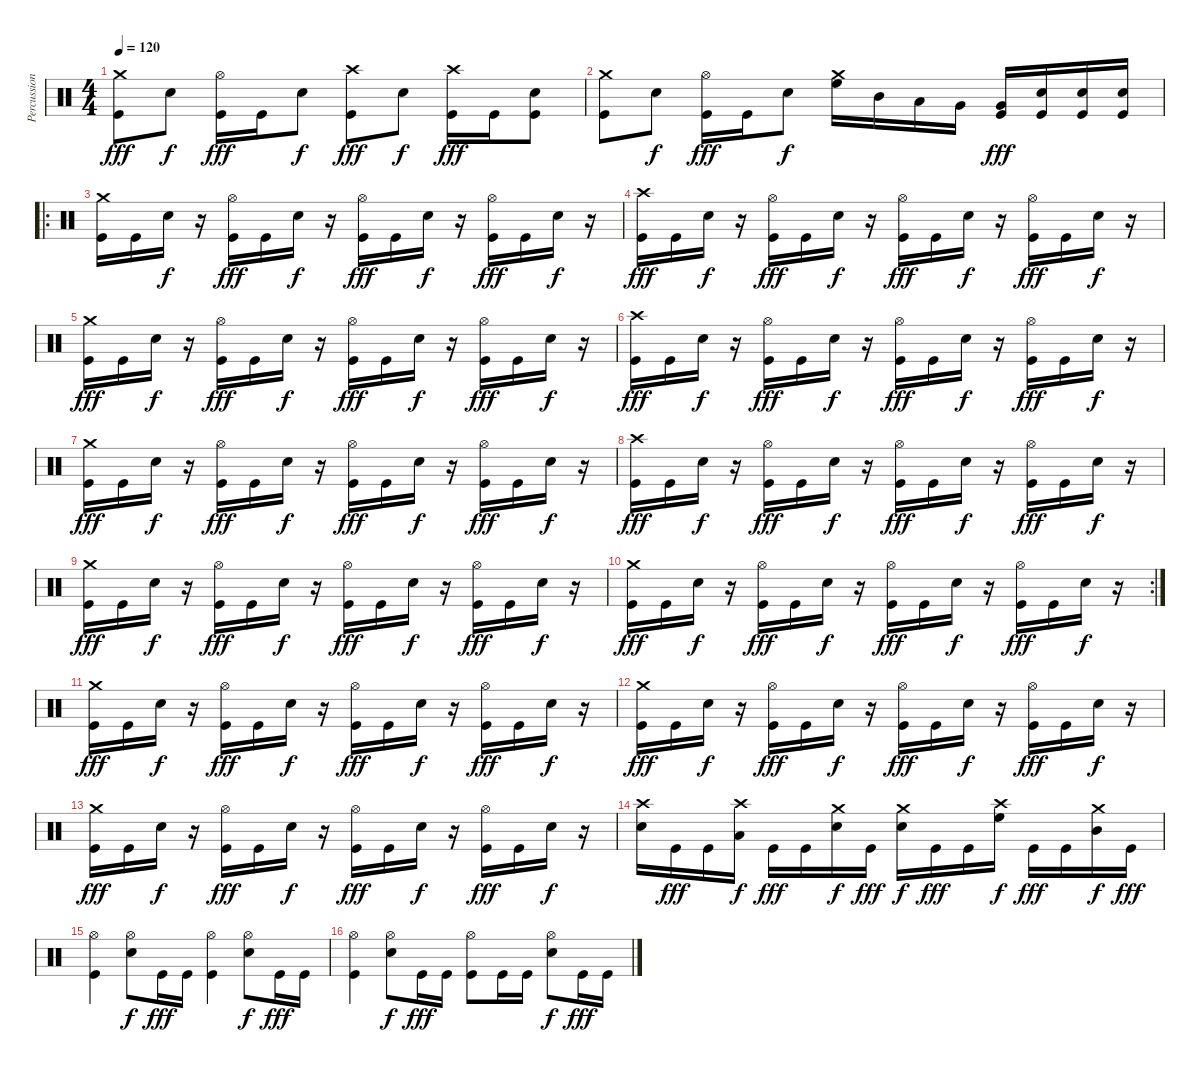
\track ("Percussion" "Percussion") {instrument percussion}
\staff {score}
\articulation defaults
\ts (4 4)
\tempo 120
\clef neutral
\ks c
("Crash medium (hit)" "Kick (hit)").8{dy fff} "Electric Snare (hit)".8{dy f} ("Hi-Hat (open)" "Kick (hit)").16{dy fff} "Kick (hit)".16 "Electric Snare (hit)".8{dy f} ("Crash high (hit)" "Kick (hit)").8{dy fff} "Electric Snare (hit)".8{dy f} ("Crash high (hit)" "Kick (hit)").16{dy fff} "Kick (hit)".16 ("Electric Snare (hit)" "Kick (hit)").8 |
("Crash medium (hit)" "Kick (hit)").8 "Electric Snare (hit)".8{dy f} ("Hi-Hat (open)" "Kick (hit)").16{dy fff} "Kick (hit)".16 "Electric Snare (hit)".8{dy f} ("Crash medium (hit)" "High Floor Tom (hit)").16 "Mid Tom (hit)".16 "Low Tom (hit)".16 "Very Low Tom (hit)".16 ("Very Low Tom (hit)" "Kick (hit)").16{dy fff} ("Electric Snare (hit)" "Kick (hit)").16 ("Electric Snare (hit)" "Kick (hit)").16 ("Electric Snare (hit)" "Kick (hit)").16 |
\ro
("Crash medium (hit)" "Kick (hit)").16 "Kick (hit)".16 "Electric Snare (hit)".16{dy f} r.16 ("Hi-Hat (open)" "Kick (hit)").16{dy fff} "Kick (hit)".16 "Electric Snare (hit)".16{dy f} r.16 ("Hi-Hat (open)" "Kick (hit)").16{dy fff} "Kick (hit)".16 "Electric Snare (hit)".16{dy f} r.16 ("Hi-Hat (open)" "Kick (hit)").16{dy fff} "Kick (hit)".16 "Electric Snare (hit)".16{dy f} r.16 |
("Crash high (hit)" "Kick (hit)").16{dy fff} "Kick (hit)".16 "Electric Snare (hit)".16{dy f} r.16 ("Hi-Hat (open)" "Kick (hit)").16{dy fff} "Kick (hit)".16 "Electric Snare (hit)".16{dy f} r.16 ("Hi-Hat (open)" "Kick (hit)").16{dy fff} "Kick (hit)".16 "Electric Snare (hit)".16{dy f} r.16 ("Hi-Hat (open)" "Kick (hit)").16{dy fff} "Kick (hit)".16 "Electric Snare (hit)".16{dy f} r.16 |
("Crash medium (hit)" "Kick (hit)").16{dy fff} "Kick (hit)".16 "Electric Snare (hit)".16{dy f} r.16 ("Hi-Hat (open)" "Kick (hit)").16{dy fff} "Kick (hit)".16 "Electric Snare (hit)".16{dy f} r.16 ("Hi-Hat (open)" "Kick (hit)").16{dy fff} "Kick (hit)".16 "Electric Snare (hit)".16{dy f} r.16 ("Hi-Hat (open)" "Kick (hit)").16{dy fff} "Kick (hit)".16 "Electric Snare (hit)".16{dy f} r.16 |
("Crash high (hit)" "Kick (hit)").16{dy fff} "Kick (hit)".16 "Electric Snare (hit)".16{dy f} r.16 ("Hi-Hat (open)" "Kick (hit)").16{dy fff} "Kick (hit)".16 "Electric Snare (hit)".16{dy f} r.16 ("Hi-Hat (open)" "Kick (hit)").16{dy fff} "Kick (hit)".16 "Electric Snare (hit)".16{dy f} r.16 ("Hi-Hat (open)" "Kick (hit)").16{dy fff} "Kick (hit)".16 "Electric Snare (hit)".16{dy f} r.16 |
("Crash medium (hit)" "Kick (hit)").16{dy fff} "Kick (hit)".16 "Electric Snare (hit)".16{dy f} r.16 ("Hi-Hat (open)" "Kick (hit)").16{dy fff} "Kick (hit)".16 "Electric Snare (hit)".16{dy f} r.16 ("Hi-Hat (open)" "Kick (hit)").16{dy fff} "Kick (hit)".16 "Electric Snare (hit)".16{dy f} r.16 ("Hi-Hat (open)" "Kick (hit)").16{dy fff} "Kick (hit)".16 "Electric Snare (hit)".16{dy f} r.16 |
("Crash high (hit)" "Kick (hit)").16{dy fff} "Kick (hit)".16 "Electric Snare (hit)".16{dy f} r.16 ("Hi-Hat (open)" "Kick (hit)").16{dy fff} "Kick (hit)".16 "Electric Snare (hit)".16{dy f} r.16 ("Hi-Hat (open)" "Kick (hit)").16{dy fff} "Kick (hit)".16 "Electric Snare (hit)".16{dy f} r.16 ("Hi-Hat (open)" "Kick (hit)").16{dy fff} "Kick (hit)".16 "Electric Snare (hit)".16{dy f} r.16 |
("Crash medium (hit)" "Kick (hit)").16{dy fff} "Kick (hit)".16 "Electric Snare (hit)".16{dy f} r.16 ("Hi-Hat (open)" "Kick (hit)").16{dy fff} "Kick (hit)".16 "Electric Snare (hit)".16{dy f} r.16 ("Hi-Hat (open)" "Kick (hit)").16{dy fff} "Kick (hit)".16 "Electric Snare (hit)".16{dy f} r.16 ("Hi-Hat (open)" "Kick (hit)").16{dy fff} "Kick (hit)".16 "Electric Snare (hit)".16{dy f} r.16 |
\rc 2
("Crash medium (hit)" "Kick (hit)").16{dy fff} "Kick (hit)".16 "Electric Snare (hit)".16{dy f} r.16 ("Hi-Hat (open)" "Kick (hit)").16{dy fff} "Kick (hit)".16 "Electric Snare (hit)".16{dy f} r.16 ("Hi-Hat (open)" "Kick (hit)").16{dy fff} "Kick (hit)".16 "Electric Snare (hit)".16{dy f} r.16 ("Hi-Hat (open)" "Kick (hit)").16{dy fff} "Kick (hit)".16 "Electric Snare (hit)".16{dy f} r.16 |
("Crash medium (hit)" "Kick (hit)").16{dy fff} "Kick (hit)".16 "Electric Snare (hit)".16{dy f} r.16 ("Hi-Hat (open)" "Kick (hit)").16{dy fff} "Kick (hit)".16 "Electric Snare (hit)".16{dy f} r.16 ("Hi-Hat (open)" "Kick (hit)").16{dy fff} "Kick (hit)".16 "Electric Snare (hit)".16{dy f} r.16 ("Hi-Hat (open)" "Kick (hit)").16{dy fff} "Kick (hit)".16 "Electric Snare (hit)".16{dy f} r.16 |
("Crash medium (hit)" "Kick (hit)").16{dy fff} "Kick (hit)".16 "Electric Snare (hit)".16{dy f} r.16 ("Hi-Hat (open)" "Kick (hit)").16{dy fff} "Kick (hit)".16 "Electric Snare (hit)".16{dy f} r.16 ("Hi-Hat (open)" "Kick (hit)").16{dy fff} "Kick (hit)".16 "Electric Snare (hit)".16{dy f} r.16 ("Hi-Hat (open)" "Kick (hit)").16{dy fff} "Kick (hit)".16 "Electric Snare (hit)".16{dy f} r.16 |
("Crash medium (hit)" "Kick (hit)").16{dy fff} "Kick (hit)".16 "Electric Snare (hit)".16{dy f} r.16 ("Hi-Hat (open)" "Kick (hit)").16{dy fff} "Kick (hit)".16 "Electric Snare (hit)".16{dy f} r.16 ("Hi-Hat (open)" "Kick (hit)").16{dy fff} "Kick (hit)".16 "Electric Snare (hit)".16{dy f} r.16 ("Hi-Hat (open)" "Kick (hit)").16{dy fff} "Kick (hit)".16 "Electric Snare (hit)".16{dy f} r.16 |
("Crash high (hit)" "Electric Snare (hit)").16 "Kick (hit)".16{dy fff} "Kick (hit)".16 ("Crash high (hit)" "Low Tom (hit)").16{dy f} "Kick (hit)".16{dy fff} "Kick (hit)".16 ("Crash medium (hit)" "Electric Snare (hit)").16{dy f} "Kick (hit)".16{dy fff} ("Crash medium (hit)" "Electric Snare (hit)").16{dy f} "Kick (hit)".16{dy fff} "Kick (hit)".16 ("Crash high (hit)" "High Floor Tom (hit)").16{dy f} "Kick (hit)".16{dy fff} "Kick (hit)".16 ("Crash medium (hit)" "Mid Tom (hit)").16{dy f} "Kick (hit)".16{dy fff} |
("Hi-Hat (open)" "Kick (hit)").4 ("Hi-Hat (open)" "Electric Snare (hit)").8{dy f} "Kick (hit)".16{dy fff} "Kick (hit)".16 ("Hi-Hat (open)" "Kick (hit)").4 ("Hi-Hat (open)" "Electric Snare (hit)").8{dy f} "Kick (hit)".16{dy fff} "Kick (hit)".16 |
("Hi-Hat (open)" "Kick (hit)").4 ("Hi-Hat (open)" "Electric Snare (hit)").8{dy f} "Kick (hit)".16{dy fff} "Kick (hit)".16 ("Hi-Hat (open)" "Kick (hit)").8 "Kick (hit)".16 "Kick (hit)".16 ("Hi-Hat (open)" "Electric Snare (hit)").8{dy f} "Kick (hit)".16{dy fff} "Kick (hit)".16
